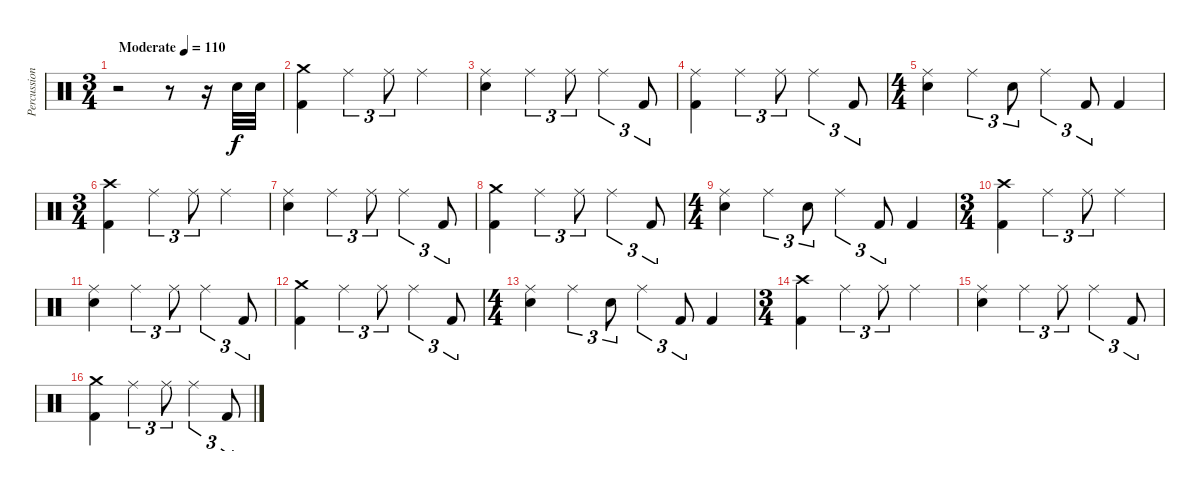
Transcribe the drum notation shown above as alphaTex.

\track ("Percussion" "Percussion") {instrument percussion}
\staff {score}
\articulation defaults
\ts (3 4)
\tempo (110 "Moderate")
\clef neutral
\ks c
r.2{dy f} r.8 r.16 "Electric Snare (hit)".32 "Electric Snare (hit)".32 |
("Crash medium (hit)" "Kick (hit) 2").4 "Ride (middle)".4{tu (3 2)} "Ride (middle)".8{tu (3 2)} "Ride (middle)".4 |
("Ride (middle)" "Electric Snare (hit)").4 "Ride (middle)".4{tu (3 2)} "Ride (middle)".8{tu (3 2)} "Ride (middle)".4{tu (3 2)} "Kick (hit) 2".8{tu (3 2)} |
("Ride (middle)" "Kick (hit) 2").4 "Ride (middle)".4{tu (3 2)} "Ride (middle)".8{tu (3 2)} "Ride (middle)".4{tu (3 2)} "Kick (hit) 2".8{tu (3 2)} |
\ts (4 4)
("Ride (middle)" "Electric Snare (hit)").4 "Ride (middle)".4{tu (3 2)} "Electric Snare (hit)".8{tu (3 2)} "Ride (middle)".4{tu (3 2)} "Kick (hit) 2".8{tu (3 2)} "Kick (hit) 2".4 |
\ts (3 4)
("Crash high (hit)" "Kick (hit) 2").4 "Ride (middle)".4{tu (3 2)} "Ride (middle)".8{tu (3 2)} "Ride (middle)".4 |
("Ride (middle)" "Electric Snare (hit)").4 "Ride (middle)".4{tu (3 2)} "Ride (middle)".8{tu (3 2)} "Ride (middle)".4{tu (3 2)} "Kick (hit) 2".8{tu (3 2)} |
("Crash medium (hit)" "Kick (hit) 2").4 "Ride (middle)".4{tu (3 2)} "Ride (middle)".8{tu (3 2)} "Ride (middle)".4{tu (3 2)} "Kick (hit) 2".8{tu (3 2)} |
\ts (4 4)
("Ride (middle)" "Electric Snare (hit)").4 "Ride (middle)".4{tu (3 2)} "Electric Snare (hit)".8{tu (3 2)} "Ride (middle)".4{tu (3 2)} "Kick (hit) 2".8{tu (3 2)} "Kick (hit) 2".4 |
\ts (3 4)
("Crash high (hit)" "Kick (hit) 2").4 "Ride (middle)".4{tu (3 2)} "Ride (middle)".8{tu (3 2)} "Ride (middle)".4 |
("Ride (middle)" "Electric Snare (hit)").4 "Ride (middle)".4{tu (3 2)} "Ride (middle)".8{tu (3 2)} "Ride (middle)".4{tu (3 2)} "Kick (hit) 2".8{tu (3 2)} |
("Crash medium (hit)" "Kick (hit) 2").4 "Ride (middle)".4{tu (3 2)} "Ride (middle)".8{tu (3 2)} "Ride (middle)".4{tu (3 2)} "Kick (hit) 2".8{tu (3 2)} |
\ts (4 4)
("Ride (middle)" "Electric Snare (hit)").4 "Ride (middle)".4{tu (3 2)} "Electric Snare (hit)".8{tu (3 2)} "Ride (middle)".4{tu (3 2)} "Kick (hit) 2".8{tu (3 2)} "Kick (hit) 2".4 |
\ts (3 4)
("Crash high (hit)" "Kick (hit) 2").4 "Ride (middle)".4{tu (3 2)} "Ride (middle)".8{tu (3 2)} "Ride (middle)".4 |
("Ride (middle)" "Electric Snare (hit)").4 "Ride (middle)".4{tu (3 2)} "Ride (middle)".8{tu (3 2)} "Ride (middle)".4{tu (3 2)} "Kick (hit) 2".8{tu (3 2)} |
("Crash medium (hit)" "Kick (hit) 2").4 "Ride (middle)".4{tu (3 2)} "Ride (middle)".8{tu (3 2)} "Ride (middle)".4{tu (3 2)} "Kick (hit) 2".8{tu (3 2)}
